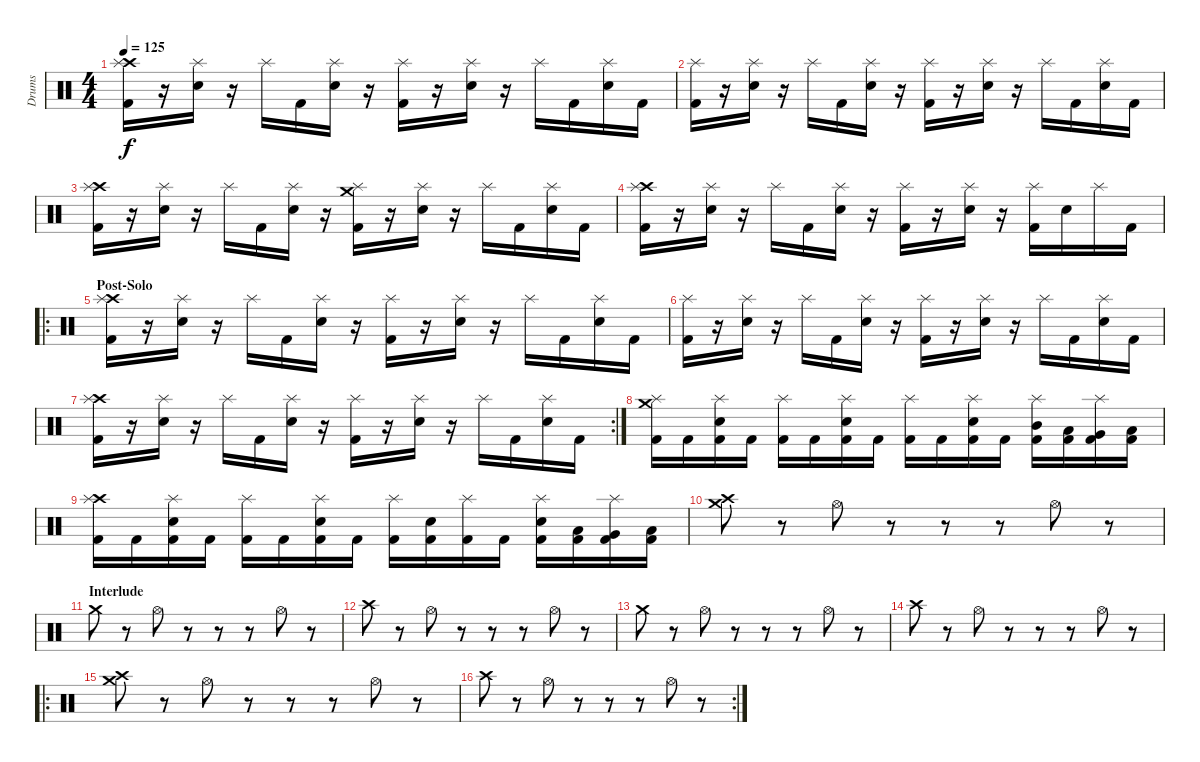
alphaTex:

\track ("Drums" "Drums") {instrument percussion}
\staff {score}
\articulation defaults
\ts (4 4)
\tempo 125
\clef neutral
\ks c
("Crash high (hit)" "Splash (hit)" "Kick (hit) 2").16{dy f} r.16 ("Splash (hit)" "Electric Snare (hit)").16 r.16 "Splash (hit)".16 "Kick (hit) 2".16 ("Splash (hit)" "Electric Snare (hit)").16 r.16 ("Splash (hit)" "Kick (hit) 2").16 r.16 ("Splash (hit)" "Electric Snare (hit)").16 r.16 "Splash (hit)".16 "Kick (hit) 2".16 ("Splash (hit)" "Electric Snare (hit)").16 "Kick (hit) 2".16 |
("Splash (hit)" "Kick (hit) 2").16 r.16 ("Splash (hit)" "Electric Snare (hit)").16 r.16 "Splash (hit)".16 "Kick (hit) 2".16 ("Splash (hit)" "Electric Snare (hit)").16 r.16 ("Splash (hit)" "Kick (hit) 2").16 r.16 ("Splash (hit)" "Electric Snare (hit)").16 r.16 "Splash (hit)".16 "Kick (hit) 2".16 ("Splash (hit)" "Electric Snare (hit)").16 "Kick (hit) 2".16 |
("Crash high (hit)" "Splash (hit)" "Kick (hit) 2").16 r.16 ("Splash (hit)" "Electric Snare (hit)").16 r.16 "Splash (hit)".16 "Kick (hit) 2".16 ("Splash (hit)" "Electric Snare (hit)").16 r.16 ("Crash medium (hit)" "Splash (hit)" "Kick (hit) 2").16 r.16 ("Splash (hit)" "Electric Snare (hit)").16 r.16 "Splash (hit)".16 "Kick (hit) 2".16 ("Splash (hit)" "Electric Snare (hit)").16 "Kick (hit) 2".16 |
("Crash high (hit)" "Splash (hit)" "Kick (hit) 2").16 r.16 ("Splash (hit)" "Electric Snare (hit)").16 r.16 "Splash (hit)".16 "Kick (hit) 2".16 ("Splash (hit)" "Electric Snare (hit)").16 r.16 ("Splash (hit)" "Kick (hit) 2").16 r.16 ("Splash (hit)" "Electric Snare (hit)").16 r.16 ("Splash (hit)" "Kick (hit) 2").16 "Electric Snare (hit)".16 "Splash (hit)".16 "Kick (hit) 2".16 |
\ro
\section ("" "Post-Solo")
("Crash high (hit)" "Splash (hit)" "Kick (hit) 2").16 r.16 ("Splash (hit)" "Electric Snare (hit)").16 r.16 "Splash (hit)".16 "Kick (hit) 2".16 ("Splash (hit)" "Electric Snare (hit)").16 r.16 ("Splash (hit)" "Kick (hit) 2").16 r.16 ("Splash (hit)" "Electric Snare (hit)").16 r.16 "Splash (hit)".16 "Kick (hit) 2".16 ("Splash (hit)" "Electric Snare (hit)").16 "Kick (hit) 2".16 |
("Splash (hit)" "Kick (hit) 2").16 r.16 ("Splash (hit)" "Electric Snare (hit)").16 r.16 "Splash (hit)".16 "Kick (hit) 2".16 ("Splash (hit)" "Electric Snare (hit)").16 r.16 ("Splash (hit)" "Kick (hit) 2").16 r.16 ("Splash (hit)" "Electric Snare (hit)").16 r.16 "Splash (hit)".16 "Kick (hit) 2".16 ("Splash (hit)" "Electric Snare (hit)").16 "Kick (hit) 2".16 |
\rc 2
("Crash high (hit)" "Splash (hit)" "Kick (hit) 2").16 r.16 ("Splash (hit)" "Electric Snare (hit)").16 r.16 "Splash (hit)".16 "Kick (hit) 2".16 ("Splash (hit)" "Electric Snare (hit)").16 r.16 ("Splash (hit)" "Kick (hit) 2").16 r.16 ("Splash (hit)" "Electric Snare (hit)").16 r.16 "Splash (hit)".16 "Kick (hit) 2".16 ("Splash (hit)" "Electric Snare (hit)").16 "Kick (hit) 2".16 |
("Crash medium (hit)" "Splash (hit)" "Kick (hit) 2").16 "Kick (hit) 2".16 ("Splash (hit)" "Electric Snare (hit)" "Kick (hit) 2").16 "Kick (hit) 2".16 ("Splash (hit)" "Kick (hit) 2").16 "Kick (hit) 2".16 ("Splash (hit)" "Electric Snare (hit)" "Kick (hit) 2").16 "Kick (hit) 2".16 ("Splash (hit)" "Kick (hit) 2").16 "Kick (hit) 2".16 ("Splash (hit)" "Electric Snare (hit)" "Kick (hit) 2").16 "Kick (hit) 2".16 ("Splash (hit)" "Mid Tom (hit)" "Kick (hit) 2").16 ("Low Tom (hit)" "Kick (hit) 2").16 ("Splash (hit)" "Very Low Tom (hit)" "Kick (hit) 2").16 ("Low Floor Tom (hit)" "Kick (hit) 2").16 |
("Crash high (hit)" "Splash (hit)" "Kick (hit) 2").16 "Kick (hit) 2".16 ("Splash (hit)" "Electric Snare (hit)" "Kick (hit) 2").16 "Kick (hit) 2".16 ("Splash (hit)" "Kick (hit) 2").16 "Kick (hit) 2".16 ("Splash (hit)" "Electric Snare (hit)" "Kick (hit) 2").16 "Kick (hit) 2".16 ("Splash (hit)" "Kick (hit) 2").16 ("Electric Snare (hit)" "Kick (hit) 2").16 ("Splash (hit)" "Kick (hit) 2").16 "Kick (hit) 2".16 ("Splash (hit)" "Electric Snare (hit)" "Kick (hit) 2").16 ("Low Tom (hit)" "Kick (hit) 2").16 ("Splash (hit)" "Very Low Tom (hit)" "Kick (hit) 2").16 ("Low Floor Tom (hit)" "Kick (hit) 2").16 |
("Crash high (hit)" "Crash medium (hit)").8 r.8 "Hi-Hat (open)".8 r.8 r.8 r.8 "Hi-Hat (open)".8 r.8 |
\section ("" "Interlude")
"Crash medium (hit)".8 r.8 "Hi-Hat (open)".8 r.8 r.8 r.8 "Hi-Hat (open)".8 r.8 |
"Crash high (hit)".8 r.8 "Hi-Hat (open)".8 r.8 r.8 r.8 "Hi-Hat (open)".8 r.8 |
"Crash medium (hit)".8 r.8 "Hi-Hat (open)".8 r.8 r.8 r.8 "Hi-Hat (open)".8 r.8 |
"Crash high (hit)".8 r.8 "Hi-Hat (open)".8 r.8 r.8 r.8 "Hi-Hat (open)".8 r.8 |
\ro
("Crash medium (hit)" "Crash high (hit)").8 r.8 "Hi-Hat (open)".8 r.8 r.8 r.8 "Hi-Hat (open)".8 r.8 |
\rc 2 "Crash high (hit)".8
r.8 "Hi-Hat (open)".8 r.8 r.8 r.8 "Hi-Hat (open)".8 r.8
